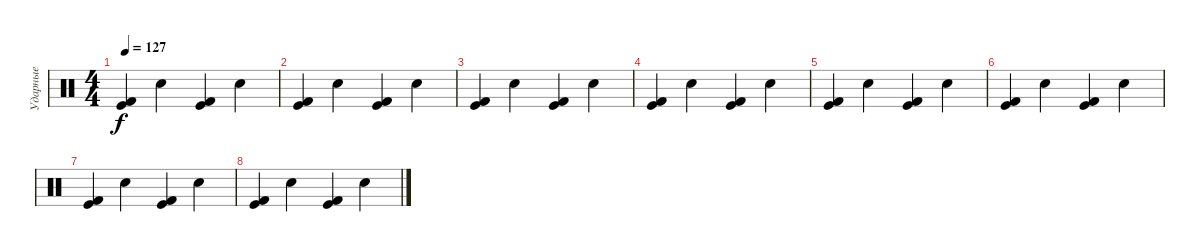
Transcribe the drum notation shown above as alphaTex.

\track ("Ударные" "Ударные") {instrument percussion}
\staff {score}
\articulation defaults
\ts (4 4)
\tempo 127
\clef neutral
\ks c
("Kick (hit) 2" "Kick (hit)").4{dy f} "Snare (hit) 2".4 ("Kick (hit) 2" "Kick (hit)").4 "Snare (hit) 2".4 |
("Kick (hit) 2" "Kick (hit)").4 "Snare (hit) 2".4 ("Kick (hit) 2" "Kick (hit)").4 "Snare (hit) 2".4 |
("Kick (hit) 2" "Kick (hit)").4 "Snare (hit) 2".4 ("Kick (hit) 2" "Kick (hit)").4 "Snare (hit) 2".4 |
("Kick (hit) 2" "Kick (hit)").4 "Snare (hit) 2".4 ("Kick (hit) 2" "Kick (hit)").4 "Snare (hit) 2".4 |
("Kick (hit) 2" "Kick (hit)").4 "Snare (hit) 2".4 ("Kick (hit) 2" "Kick (hit)").4 "Snare (hit) 2".4 |
("Kick (hit) 2" "Kick (hit)").4 "Snare (hit) 2".4 ("Kick (hit) 2" "Kick (hit)").4 "Snare (hit) 2".4 |
("Kick (hit) 2" "Kick (hit)").4 "Snare (hit) 2".4 ("Kick (hit) 2" "Kick (hit)").4 "Snare (hit) 2".4 |
("Kick (hit) 2" "Kick (hit)").4 "Snare (hit) 2".4 ("Kick (hit) 2" "Kick (hit)").4 "Snare (hit) 2".4
